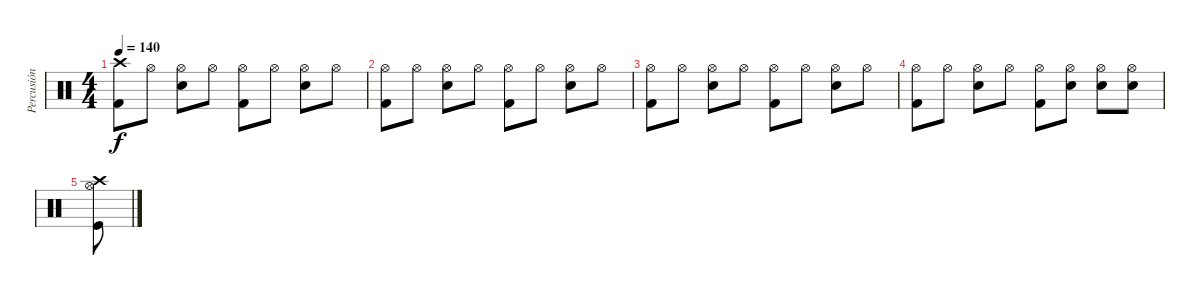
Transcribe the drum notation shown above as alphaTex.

\track ("Percusión" "Percusión") {instrument percussion}
\staff {score}
\articulation defaults
\ts (4 4)
\tempo 140
\clef neutral
\ks c
("Crash high (hit)" "Kick (hit) 2").8{dy f} "Hi-Hat (open)".8 ("Hi-Hat (open)" "Electric Snare (hit)").8 "Hi-Hat (open)".8 ("Hi-Hat (open)" "Kick (hit) 2").8 "Hi-Hat (open)".8 ("Hi-Hat (open)" "Electric Snare (hit)").8 "Hi-Hat (open)".8 |
("Hi-Hat (open)" "Kick (hit) 2").8 "Hi-Hat (open)".8 ("Hi-Hat (open)" "Electric Snare (hit)").8 "Hi-Hat (open)".8 ("Hi-Hat (open)" "Kick (hit) 2").8 "Hi-Hat (open)".8 ("Hi-Hat (open)" "Electric Snare (hit)").8 "Hi-Hat (open)".8 |
("Hi-Hat (open)" "Kick (hit) 2").8 "Hi-Hat (open)".8 ("Hi-Hat (open)" "Electric Snare (hit)").8 "Hi-Hat (open)".8 ("Hi-Hat (open)" "Kick (hit) 2").8 "Hi-Hat (open)".8 ("Hi-Hat (open)" "Electric Snare (hit)").8 "Hi-Hat (open)".8 |
("Hi-Hat (open)" "Kick (hit) 2").8 "Hi-Hat (open)".8 ("Hi-Hat (open)" "Electric Snare (hit)").8 "Hi-Hat (open)".8 ("Hi-Hat (open)" "Kick (hit) 2").8 ("Hi-Hat (open)" "Electric Snare (hit)").8 ("Hi-Hat (open)" "Electric Snare (hit)").8 ("Hi-Hat (open)" "Electric Snare (hit)").8 |
("Crash high (hit)" "Kick (hit)" "Hi-Hat (open)").8
